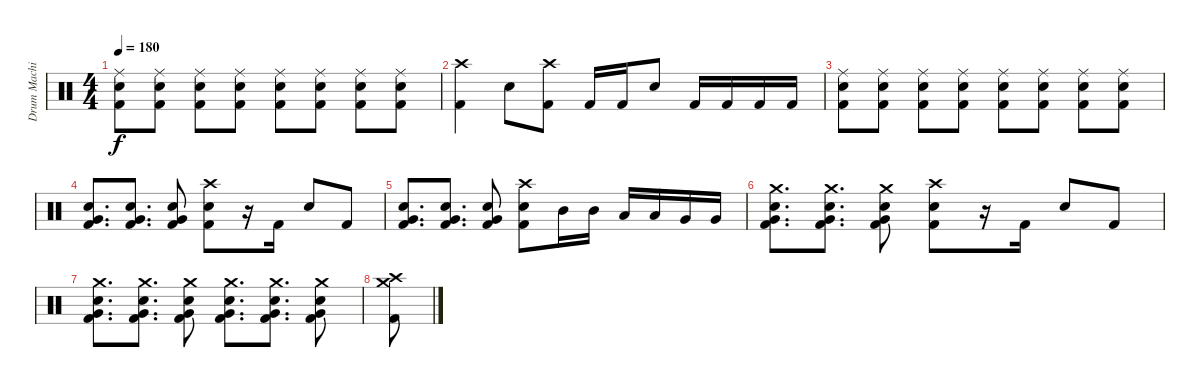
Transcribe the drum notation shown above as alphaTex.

\track ("Drum Machine" "Drum Machi") {instrument percussion}
\staff {score}
\articulation defaults
\ts (4 4)
\tempo 180
\clef neutral
\ks c
("Ride (middle)" "Snare (hit) 2" "Kick (hit) 2").8{dy f} ("Ride (middle)" "Snare (hit) 2" "Kick (hit) 2").8 ("Ride (middle)" "Snare (hit) 2" "Kick (hit) 2").8 ("Ride (middle)" "Snare (hit) 2" "Kick (hit) 2").8 ("Ride (middle)" "Snare (hit) 2" "Kick (hit) 2").8 ("Ride (middle)" "Snare (hit) 2" "Kick (hit) 2").8 ("Ride (middle)" "Snare (hit) 2" "Kick (hit) 2").8 ("Ride (middle)" "Snare (hit) 2" "Kick (hit) 2").8 |
("Crash high (hit)" "Kick (hit) 2").4 "Snare (hit) 2".8 ("Crash high (hit)" "Kick (hit) 2").8 "Kick (hit) 2".16 "Kick (hit) 2".16 "Snare (hit) 2".8 "Kick (hit) 2".16 "Kick (hit) 2".16 "Kick (hit) 2".16 "Kick (hit) 2".16 |
("Ride (middle)" "Snare (hit) 2" "Kick (hit) 2").8 ("Ride (middle)" "Snare (hit) 2" "Kick (hit) 2").8 ("Ride (middle)" "Snare (hit) 2" "Kick (hit) 2").8 ("Ride (middle)" "Snare (hit) 2" "Kick (hit) 2").8 ("Ride (middle)" "Snare (hit) 2" "Kick (hit) 2").8 ("Ride (middle)" "Snare (hit) 2" "Kick (hit) 2").8 ("Ride (middle)" "Snare (hit) 2" "Kick (hit) 2").8 ("Ride (middle)" "Snare (hit) 2" "Kick (hit) 2").8 |
("Very Low Tom (hit)" "Snare (hit) 2" "Kick (hit) 2").8{d} ("Very Low Tom (hit)" "Snare (hit) 2" "Kick (hit) 2").8{d} ("Very Low Tom (hit)" "Snare (hit) 2" "Kick (hit) 2").8 ("Crash high (hit)" "Snare (hit) 2" "Kick (hit) 2").8 r.16 "Kick (hit) 2".16 "Snare (hit) 2".8 "Kick (hit) 2".8 |
("Very Low Tom (hit)" "Snare (hit) 2" "Kick (hit) 2").8{d} ("Very Low Tom (hit)" "Snare (hit) 2" "Kick (hit) 2").8{d} ("Very Low Tom (hit)" "Snare (hit) 2" "Kick (hit) 2").8 ("Crash high (hit)" "Snare (hit) 2" "Kick (hit) 2").8 "Mid Tom (hit)".16 "Mid Tom (hit)".16 "Low Tom (hit)".16 "Low Tom (hit)".16 "Very Low Tom (hit)".16 "Very Low Tom (hit)".16 |
("Crash medium (hit)" "Very Low Tom (hit)" "Snare (hit) 2" "Kick (hit) 2").8{d} ("Crash medium (hit)" "Very Low Tom (hit)" "Snare (hit) 2" "Kick (hit) 2").8{d} ("Crash medium (hit)" "Very Low Tom (hit)" "Snare (hit) 2" "Kick (hit) 2").8 ("Crash high (hit)" "Snare (hit) 2" "Kick (hit) 2").8 r.16 "Kick (hit) 2".16 "Snare (hit) 2".8 "Kick (hit) 2".8 |
("Crash medium (hit)" "Very Low Tom (hit)" "Snare (hit) 2" "Kick (hit) 2").8{d} ("Crash medium (hit)" "Very Low Tom (hit)" "Snare (hit) 2" "Kick (hit) 2").8{d} ("Crash medium (hit)" "Very Low Tom (hit)" "Snare (hit) 2" "Kick (hit) 2").8 ("Crash medium (hit)" "Very Low Tom (hit)" "Snare (hit) 2" "Kick (hit) 2").8{d} ("Crash medium (hit)" "Very Low Tom (hit)" "Snare (hit) 2" "Kick (hit) 2").8{d} ("Crash medium (hit)" "Very Low Tom (hit)" "Snare (hit) 2" "Kick (hit) 2").8 |
("Crash medium (hit)" "Crash high (hit)" "Kick (hit) 2").8
